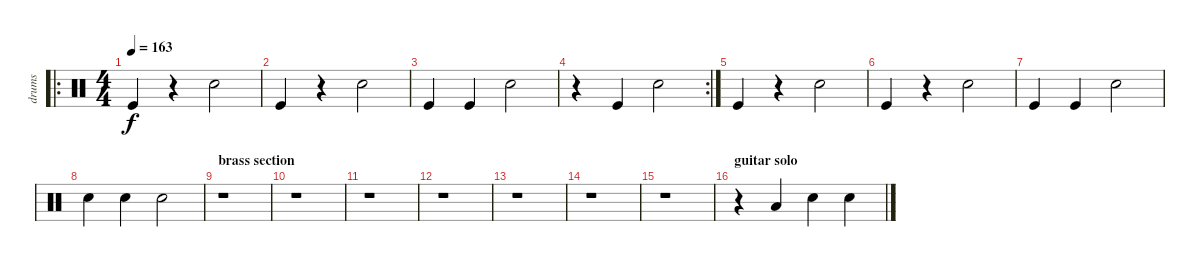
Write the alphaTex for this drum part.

\track ("drums" "drums") {instrument percussion}
\staff {score}
\articulation defaults
\ro
\ts (4 4)
\tempo 163
\clef neutral
\ks c "Kick (hit)".4{dy f}
r.4 "Snare (hit) 2".2 |
"Kick (hit)".4 r.4 "Snare (hit) 2".2 |
"Kick (hit)".4 "Kick (hit)".4 "Snare (hit) 2".2 |
\rc 2
r.4 "Kick (hit)".4 "Snare (hit) 2".2 |
"Kick (hit)".4 r.4 "Snare (hit) 2".2 |
"Kick (hit)".4 r.4 "Snare (hit) 2".2 |
"Kick (hit)".4 "Kick (hit)".4 "Snare (hit) 2".2 |
"Snare (hit) 2".4 "Snare (hit) 2".4 "Snare (hit) 2".2 |
\section ("" "brass section")
r.1 |
r.1 |
r.1 |
r.1 |
r.1 |
r.1 |
r.1 |
\section ("" "guitar solo")
r.4 "Low Tom (hit)".4 "Snare (hit) 2".4 "Snare (hit) 2".4
